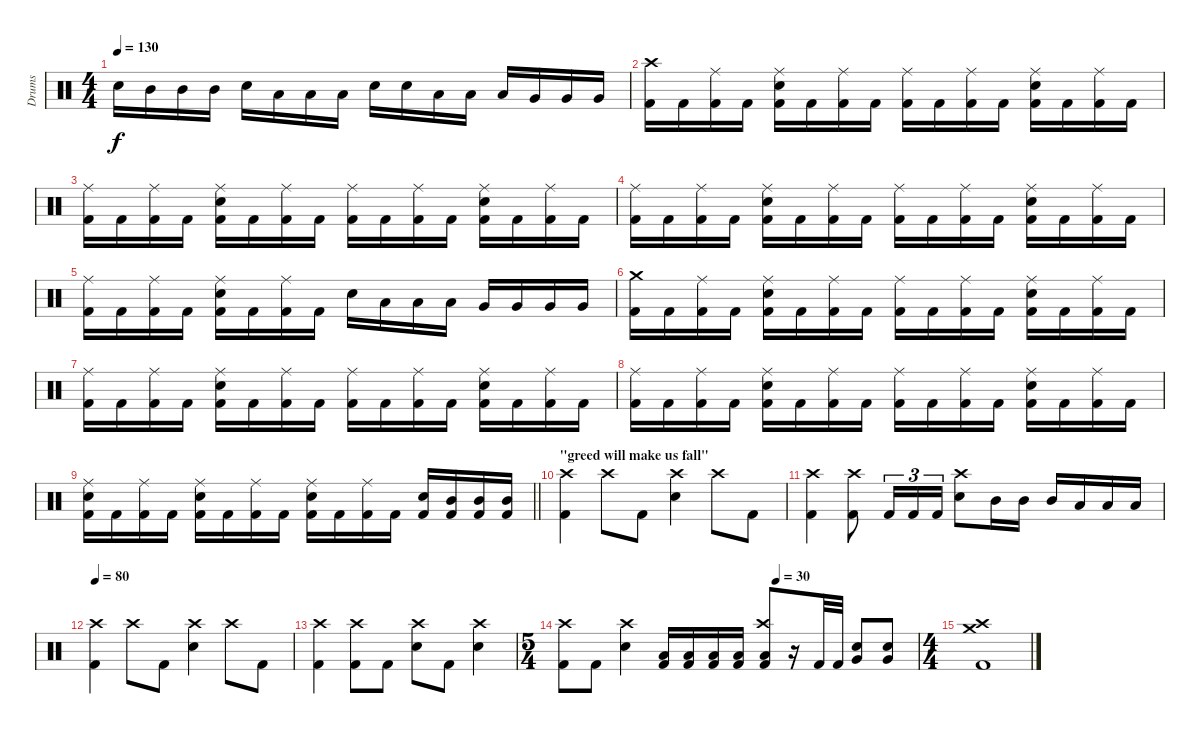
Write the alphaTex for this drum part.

\track ("Drums" "Drums") {instrument percussion}
\staff {score}
\articulation defaults
\ts (4 4)
\tempo 130
\clef neutral
\ks c "Snare (hit) 2".16{dy f} "Mid Tom (hit)".16 "Mid Tom (hit)".16 "Mid Tom (hit)".16 "Snare (hit) 2".16 "Low Tom (hit)".16 "Low Tom (hit)".16 "Low Tom (hit)".16 "Snare (hit) 2".16 "Snare (hit) 2".16 "Low Tom (hit)".16 "Low Tom (hit)".16 "Low Tom (hit)".16 "Very Low Tom (hit)".16 "Very Low Tom (hit)".16 "Very Low Tom (hit)".16
|
("Crash high (hit)" "Kick (hit) 2").16 "Kick (hit) 2".16 ("Ride (middle)" "Kick (hit) 2").16 "Kick (hit) 2".16 ("Ride (middle)" "Snare (hit) 2" "Kick (hit) 2").16 "Kick (hit) 2".16 ("Ride (middle)" "Kick (hit) 2").16 "Kick (hit) 2".16 ("Ride (middle)" "Kick (hit) 2").16 "Kick (hit) 2".16 ("Ride (middle)" "Kick (hit) 2").16 "Kick (hit) 2".16 ("Ride (middle)" "Snare (hit) 2" "Kick (hit) 2").16 "Kick (hit) 2".16 ("Ride (middle)" "Kick (hit) 2").16 "Kick (hit) 2".16 |
("Ride (middle)" "Kick (hit) 2").16 "Kick (hit) 2".16 ("Ride (middle)" "Kick (hit) 2").16 "Kick (hit) 2".16 ("Ride (middle)" "Snare (hit) 2" "Kick (hit) 2").16 "Kick (hit) 2".16 ("Ride (middle)" "Kick (hit) 2").16 "Kick (hit) 2".16 ("Ride (middle)" "Kick (hit) 2").16 "Kick (hit) 2".16 ("Ride (middle)" "Kick (hit) 2").16 "Kick (hit) 2".16 ("Ride (middle)" "Snare (hit) 2" "Kick (hit) 2").16 "Kick (hit) 2".16 ("Ride (middle)" "Kick (hit) 2").16 "Kick (hit) 2".16 |
("Ride (middle)" "Kick (hit) 2").16 "Kick (hit) 2".16 ("Ride (middle)" "Kick (hit) 2").16 "Kick (hit) 2".16 ("Ride (middle)" "Snare (hit) 2" "Kick (hit) 2").16 "Kick (hit) 2".16 ("Ride (middle)" "Kick (hit) 2").16 "Kick (hit) 2".16 ("Ride (middle)" "Kick (hit) 2").16 "Kick (hit) 2".16 ("Ride (middle)" "Kick (hit) 2").16 "Kick (hit) 2".16 ("Ride (middle)" "Snare (hit) 2" "Kick (hit) 2").16 "Kick (hit) 2".16 ("Ride (middle)" "Kick (hit) 2").16 "Kick (hit) 2".16 |
("Ride (middle)" "Kick (hit) 2").16 "Kick (hit) 2".16 ("Ride (middle)" "Kick (hit) 2").16 "Kick (hit) 2".16 ("Ride (middle)" "Snare (hit) 2" "Kick (hit) 2").16 "Kick (hit) 2".16 ("Ride (middle)" "Kick (hit) 2").16 "Kick (hit) 2".16 "Snare (hit) 2".16 "Low Tom (hit)".16 "Low Tom (hit)".16 "Low Tom (hit)".16 "Very Low Tom (hit)".16 "Very Low Tom (hit)".16 "Very Low Tom (hit)".16 "Very Low Tom (hit)".16 |
("Crash medium (hit)" "Kick (hit) 2").16 "Kick (hit) 2".16 ("Ride (middle)" "Kick (hit) 2").16 "Kick (hit) 2".16 ("Ride (middle)" "Snare (hit) 2" "Kick (hit) 2").16 "Kick (hit) 2".16 ("Ride (middle)" "Kick (hit) 2").16 "Kick (hit) 2".16 ("Ride (middle)" "Kick (hit) 2").16 "Kick (hit) 2".16 ("Ride (middle)" "Kick (hit) 2").16 "Kick (hit) 2".16 ("Ride (middle)" "Snare (hit) 2" "Kick (hit) 2").16 "Kick (hit) 2".16 ("Ride (middle)" "Kick (hit) 2").16 "Kick (hit) 2".16 |
("Ride (middle)" "Kick (hit) 2").16 "Kick (hit) 2".16 ("Ride (middle)" "Kick (hit) 2").16 "Kick (hit) 2".16 ("Ride (middle)" "Snare (hit) 2" "Kick (hit) 2").16 "Kick (hit) 2".16 ("Ride (middle)" "Kick (hit) 2").16 "Kick (hit) 2".16 ("Ride (middle)" "Kick (hit) 2").16 "Kick (hit) 2".16 ("Ride (middle)" "Kick (hit) 2").16 "Kick (hit) 2".16 ("Ride (middle)" "Snare (hit) 2" "Kick (hit) 2").16 "Kick (hit) 2".16 ("Ride (middle)" "Kick (hit) 2").16 "Kick (hit) 2".16 |
("Ride (middle)" "Kick (hit) 2").16 "Kick (hit) 2".16 ("Ride (middle)" "Kick (hit) 2").16 "Kick (hit) 2".16 ("Ride (middle)" "Snare (hit) 2" "Kick (hit) 2").16 "Kick (hit) 2".16 ("Ride (middle)" "Kick (hit) 2").16 "Kick (hit) 2".16 ("Ride (middle)" "Kick (hit) 2").16 "Kick (hit) 2".16 ("Ride (middle)" "Kick (hit) 2").16 "Kick (hit) 2".16 ("Ride (middle)" "Snare (hit) 2" "Kick (hit) 2").16 "Kick (hit) 2".16 ("Ride (middle)" "Kick (hit) 2").16 "Kick (hit) 2".16 |
\barLineRight lightlight
("Ride (middle)" "Snare (hit) 2" "Kick (hit) 2").16 "Kick (hit) 2".16 ("Ride (middle)" "Kick (hit) 2").16 "Kick (hit) 2".16 ("Ride (middle)" "Snare (hit) 2" "Kick (hit) 2").16 "Kick (hit) 2".16 ("Ride (middle)" "Kick (hit) 2").16 "Kick (hit) 2".16 ("Ride (middle)" "Snare (hit) 2" "Kick (hit) 2").16 "Kick (hit) 2".16 ("Ride (middle)" "Kick (hit) 2").16 "Kick (hit) 2".16 ("Snare (hit) 2" "Kick (hit) 2").16 ("Mid Tom (hit)" "Kick (hit) 2").16 ("Mid Tom (hit)" "Kick (hit) 2").16 ("Mid Tom (hit)" "Kick (hit) 2").16 |
\section ("" "\"greed will make us fall\"")
("Crash high (hit)" "Kick (hit) 2").4 "Crash high (hit)".8 "Kick (hit) 2".8 ("Crash high (hit)" "Snare (hit) 2").4 "Crash high (hit)".8 "Kick (hit) 2".8 |
("Crash high (hit)" "Kick (hit) 2").4 ("Crash high (hit)" "Kick (hit) 2").8 "Kick (hit) 2".16{tu (3 2)} "Kick (hit) 2".16{tu (3 2)} "Kick (hit) 2".16{tu (3 2)} ("Crash high (hit)" "Snare (hit) 2").8 "Mid Tom (hit)".16 "Mid Tom (hit)".16 "Mid Tom (hit)".16 "Low Tom (hit)".16 "Low Tom (hit)".16 "Low Tom (hit)".16 |
\tempo 90
\tempo 80
("Crash high (hit)" "Kick (hit) 2").4 "Crash high (hit)".8 "Kick (hit) 2".8 ("Crash high (hit)" "Snare (hit) 2").4 "Crash high (hit)".8 "Kick (hit) 2".8 |
("Crash high (hit)" "Kick (hit) 2").4 ("Crash high (hit)" "Kick (hit) 2").8 "Kick (hit) 2".8 ("Crash high (hit)" "Snare (hit) 2").8 "Kick (hit) 2".8 ("Crash high (hit)" "Snare (hit) 2").4 |
\ts (5 4)
\tempo (30 0.6)
("Crash high (hit)" "Kick (hit) 2").8 "Kick (hit) 2".8 ("Crash high (hit)" "Snare (hit) 2").4 ("Low Tom (hit)" "Kick (hit) 2").16 ("Low Tom (hit)" "Kick (hit) 2").16 ("Low Tom (hit)" "Kick (hit) 2").16 ("Low Tom (hit)" "Kick (hit) 2").16 ("Crash high (hit)" "Low Tom (hit)" "Kick (hit) 2").8 r.16 "Kick (hit) 2".32 "Kick (hit) 2".32 ("Very Low Tom (hit)" "Snare (hit) 2").8 ("Very Low Tom (hit)" "Snare (hit) 2").8 |
\ts (4 4)
("Crash high (hit)" "Crash medium (hit)" "Kick (hit) 2").1
